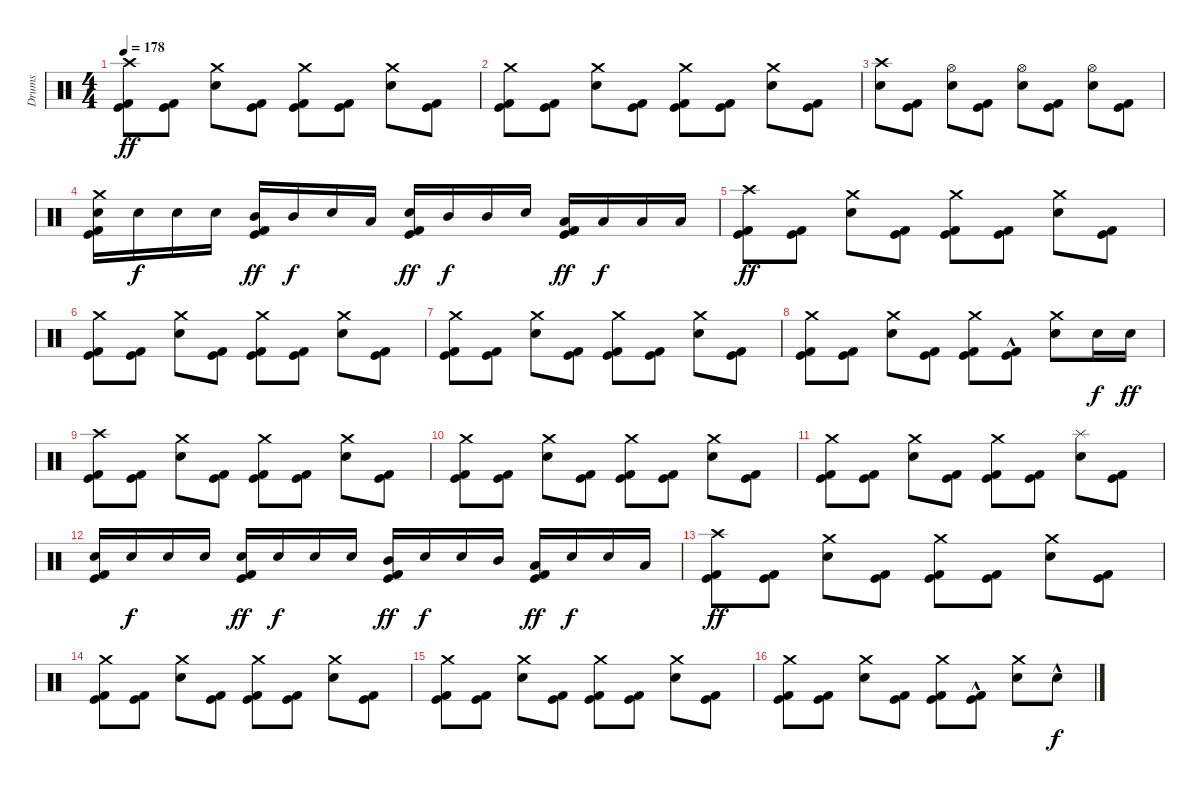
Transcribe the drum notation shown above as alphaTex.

\track ("Drums" "Drums") {instrument percussion}
\staff {score}
\articulation defaults
\ts (4 4)
\tempo 178
\clef neutral
\ks c
("Kick (hit)" "Kick (hit) 2" "Crash high (hit)").8{dy ff} ("Kick (hit)" "Kick (hit) 2").8 ("Electric Snare (hit)" "Crash medium (hit)").8 ("Kick (hit)" "Kick (hit) 2").8 ("Kick (hit)" "Kick (hit) 2" "Crash medium (hit)").8 ("Kick (hit)" "Kick (hit) 2").8 ("Electric Snare (hit)" "Crash medium (hit)").8 ("Kick (hit)" "Kick (hit) 2").8 |
("Kick (hit)" "Kick (hit) 2" "Crash medium (hit)").8 ("Kick (hit)" "Kick (hit) 2").8 ("Electric Snare (hit)" "Crash medium (hit)").8 ("Kick (hit)" "Kick (hit) 2").8 ("Kick (hit)" "Kick (hit) 2" "Crash medium (hit)").8 ("Kick (hit)" "Kick (hit) 2").8 ("Electric Snare (hit)" "Crash medium (hit)").8 ("Kick (hit)" "Kick (hit) 2").8 |
("Electric Snare (hit)" "Crash high (hit)").8 ("Kick (hit)" "Kick (hit) 2").8 ("Electric Snare (hit)" "Hi-Hat (open)").8 ("Kick (hit)" "Kick (hit) 2").8 ("Electric Snare (hit)" "Hi-Hat (open)").8 ("Kick (hit)" "Kick (hit) 2").8 ("Electric Snare (hit)" "Hi-Hat (open)").8 ("Kick (hit)" "Kick (hit) 2").8 |
("Kick (hit)" "Kick (hit) 2" "Electric Snare (hit)" "Crash medium (hit)").16 "Electric Snare (hit)".16{dy f} "Electric Snare (hit)".16 "Electric Snare (hit)".16 ("Kick (hit)" "Kick (hit) 2" "Mid Tom (hit)").16{dy ff} "Mid Tom (hit)".16{dy f} "Electric Snare (hit)".16 "Low Tom (hit)".16 ("Kick (hit)" "Kick (hit) 2" "Electric Snare (hit)").16{dy ff} "Mid Tom (hit)".16{dy f} "Mid Tom (hit)".16 "Electric Snare (hit)".16 ("Kick (hit)" "Kick (hit) 2" "Low Tom (hit)").16{dy ff} "Low Tom (hit)".16{dy f} "Low Tom (hit)".16 "Low Tom (hit)".16 |
("Kick (hit)" "Kick (hit) 2" "Crash high (hit)").8{dy ff} ("Kick (hit)" "Kick (hit) 2").8 ("Electric Snare (hit)" "Crash medium (hit)").8 ("Kick (hit)" "Kick (hit) 2").8 ("Kick (hit)" "Kick (hit) 2" "Crash medium (hit)").8 ("Kick (hit)" "Kick (hit) 2").8 ("Electric Snare (hit)" "Crash medium (hit)").8 ("Kick (hit)" "Kick (hit) 2").8 |
("Kick (hit)" "Kick (hit) 2" "Crash medium (hit)").8 ("Kick (hit)" "Kick (hit) 2").8 ("Electric Snare (hit)" "Crash medium (hit)").8 ("Kick (hit)" "Kick (hit) 2").8 ("Kick (hit)" "Kick (hit) 2" "Crash medium (hit)").8 ("Kick (hit)" "Kick (hit) 2").8 ("Electric Snare (hit)" "Crash medium (hit)").8 ("Kick (hit)" "Kick (hit) 2").8 |
("Kick (hit)" "Kick (hit) 2" "Crash medium (hit)").8 ("Kick (hit)" "Kick (hit) 2").8 ("Electric Snare (hit)" "Crash medium (hit)").8 ("Kick (hit)" "Kick (hit) 2").8 ("Kick (hit)" "Kick (hit) 2" "Crash medium (hit)").8 ("Kick (hit)" "Kick (hit) 2").8 ("Electric Snare (hit)" "Crash medium (hit)").8 ("Kick (hit)" "Kick (hit) 2").8 |
("Kick (hit)" "Kick (hit) 2" "Crash medium (hit)").8 ("Kick (hit)" "Kick (hit) 2").8 ("Electric Snare (hit)" "Crash medium (hit)").8 ("Kick (hit)" "Kick (hit) 2").8 ("Kick (hit)" "Kick (hit) 2" "Crash medium (hit)").8 ("Kick (hit)"{hac} "Kick (hit) 2"{hac}).8 ("Electric Snare (hit)" "Crash medium (hit)").8 "Electric Snare (hit)".16{dy f} "Electric Snare (hit)".16{dy ff} |
("Kick (hit)" "Kick (hit) 2" "Crash high (hit)").8 ("Kick (hit)" "Kick (hit) 2").8 ("Electric Snare (hit)" "Crash medium (hit)").8 ("Kick (hit)" "Kick (hit) 2").8 ("Kick (hit)" "Kick (hit) 2" "Crash medium (hit)").8 ("Kick (hit)" "Kick (hit) 2").8 ("Electric Snare (hit)" "Crash medium (hit)").8 ("Kick (hit)" "Kick (hit) 2").8 |
("Kick (hit)" "Kick (hit) 2" "Crash medium (hit)").8 ("Kick (hit)" "Kick (hit) 2").8 ("Electric Snare (hit)" "Crash medium (hit)").8 ("Kick (hit)" "Kick (hit) 2").8 ("Kick (hit)" "Kick (hit) 2" "Crash medium (hit)").8 ("Kick (hit)" "Kick (hit) 2").8 ("Electric Snare (hit)" "Crash medium (hit)").8 ("Kick (hit)" "Kick (hit) 2").8 |
("Kick (hit)" "Kick (hit) 2" "Crash medium (hit)").8 ("Kick (hit)" "Kick (hit) 2").8 ("Electric Snare (hit)" "Crash medium (hit)").8 ("Kick (hit)" "Kick (hit) 2").8 ("Kick (hit)" "Kick (hit) 2" "Crash medium (hit)").8 ("Kick (hit)" "Kick (hit) 2").8 ("Electric Snare (hit)" "Splash (hit)").8 ("Kick (hit)" "Kick (hit) 2").8 |
("Kick (hit)" "Kick (hit) 2" "Electric Snare (hit)").16 "Electric Snare (hit)".16{dy f} "Electric Snare (hit)".16 "Electric Snare (hit)".16 ("Kick (hit)" "Kick (hit) 2" "Electric Snare (hit)").16{dy ff} "Electric Snare (hit)".16{dy f} "Electric Snare (hit)".16 "Electric Snare (hit)".16 ("Kick (hit)" "Kick (hit) 2" "Mid Tom (hit)").16{dy ff} "Electric Snare (hit)".16{dy f} "Electric Snare (hit)".16 "Mid Tom (hit)".16 ("Kick (hit)" "Kick (hit) 2" "Low Tom (hit)").16{dy ff} "Electric Snare (hit)".16{dy f} "Electric Snare (hit)".16 "Low Tom (hit)".16 |
("Kick (hit)" "Kick (hit) 2" "Crash high (hit)").8{dy ff} ("Kick (hit)" "Kick (hit) 2").8 ("Electric Snare (hit)" "Crash medium (hit)").8 ("Kick (hit)" "Kick (hit) 2").8 ("Kick (hit)" "Kick (hit) 2" "Crash medium (hit)").8 ("Kick (hit)" "Kick (hit) 2").8 ("Electric Snare (hit)" "Crash medium (hit)").8 ("Kick (hit)" "Kick (hit) 2").8 |
("Kick (hit)" "Kick (hit) 2" "Crash medium (hit)").8 ("Kick (hit)" "Kick (hit) 2").8 ("Electric Snare (hit)" "Crash medium (hit)").8 ("Kick (hit)" "Kick (hit) 2").8 ("Kick (hit)" "Kick (hit) 2" "Crash medium (hit)").8 ("Kick (hit)" "Kick (hit) 2").8 ("Electric Snare (hit)" "Crash medium (hit)").8 ("Kick (hit)" "Kick (hit) 2").8 |
("Kick (hit)" "Kick (hit) 2" "Crash medium (hit)").8 ("Kick (hit)" "Kick (hit) 2").8 ("Electric Snare (hit)" "Crash medium (hit)").8 ("Kick (hit)" "Kick (hit) 2").8 ("Kick (hit)" "Kick (hit) 2" "Crash medium (hit)").8 ("Kick (hit)" "Kick (hit) 2").8 ("Electric Snare (hit)" "Crash medium (hit)").8 ("Kick (hit)" "Kick (hit) 2").8 |
("Kick (hit)" "Kick (hit) 2" "Crash medium (hit)").8 ("Kick (hit)" "Kick (hit) 2").8 ("Electric Snare (hit)" "Crash medium (hit)").8 ("Kick (hit)" "Kick (hit) 2").8 ("Kick (hit)" "Kick (hit) 2" "Crash medium (hit)").8 ("Kick (hit)"{hac} "Kick (hit) 2"{hac}).8 ("Electric Snare (hit)" "Crash medium (hit)").8 "Electric Snare (hit)"{hac}.8{dy f}
